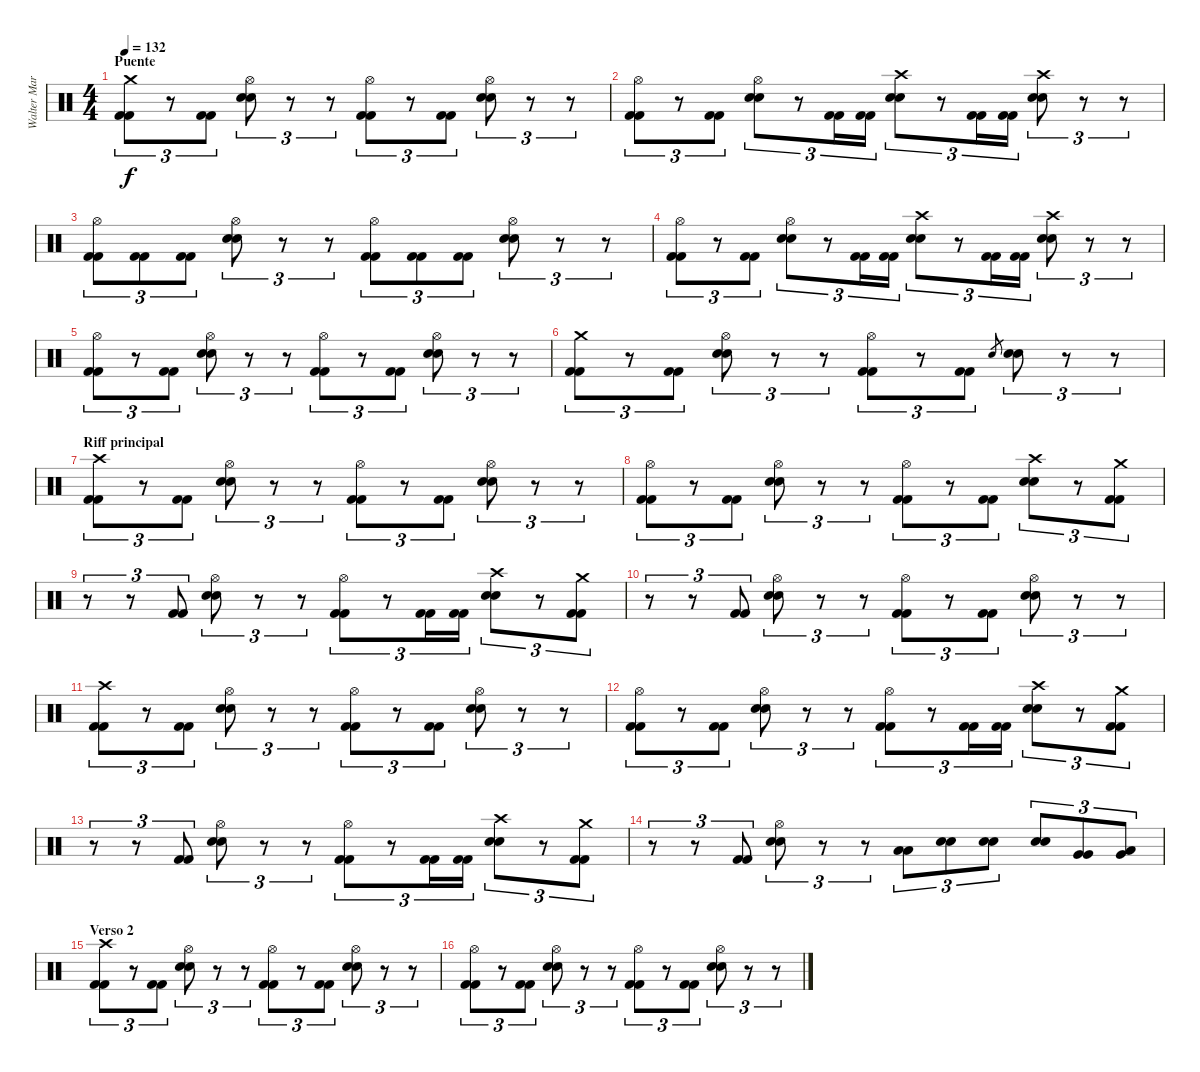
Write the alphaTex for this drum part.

\track ("Walter Martinez (bateria)" "Walter Mar") {instrument percussion}
\staff {score}
\articulation defaults
\ts (4 4)
\section ("" "Puente")
\tempo 132
\clef neutral
\ks c
("Crash medium (hit)" "Kick (hit) 2" "Kick (hit) 2").8{tu (3 2) dy f} r.8{tu (3 2)} ("Kick (hit) 2" "Kick (hit) 2").8{tu (3 2)} ("Hi-Hat (open)" "Snare (hit) 2" "Snare (hit) 2").8{tu (3 2)} r.8{tu (3 2)} r.8{tu (3 2)} ("Hi-Hat (open)" "Kick (hit) 2" "Kick (hit) 2").8{tu (3 2)} r.8{tu (3 2)} ("Kick (hit) 2" "Kick (hit) 2").8{tu (3 2)} ("Hi-Hat (open)" "Snare (hit) 2" "Snare (hit) 2").8{tu (3 2)} r.8{tu (3 2)} r.8{tu (3 2)} |
("Hi-Hat (open)" "Kick (hit) 2" "Kick (hit) 2").8{tu (3 2)} r.8{tu (3 2)} ("Kick (hit) 2" "Kick (hit) 2").8{tu (3 2)} ("Hi-Hat (open)" "Snare (hit) 2" "Snare (hit) 2").8{tu (3 2)} r.8{tu (3 2)} ("Kick (hit) 2" "Kick (hit) 2").16{tu (3 2)} ("Kick (hit) 2" "Kick (hit) 2").16{tu (3 2)} ("Crash high (hit)" "Snare (hit) 2" "Snare (hit) 2").8{tu (3 2)} r.8{tu (3 2)} ("Kick (hit) 2" "Kick (hit) 2").16{tu (3 2)} ("Kick (hit) 2" "Kick (hit) 2").16{tu (3 2)} ("Crash high (hit)" "Snare (hit) 2" "Snare (hit) 2").8{tu (3 2)} r.8{tu (3 2)} r.8{tu (3 2)} |
("Hi-Hat (open)" "Kick (hit) 2" "Kick (hit) 2").8{tu (3 2)} ("Kick (hit) 2" "Kick (hit) 2").8{tu (3 2)} ("Kick (hit) 2" "Kick (hit) 2").8{tu (3 2)} ("Hi-Hat (open)" "Snare (hit) 2" "Snare (hit) 2").8{tu (3 2)} r.8{tu (3 2)} r.8{tu (3 2)} ("Hi-Hat (open)" "Kick (hit) 2" "Kick (hit) 2").8{tu (3 2)} ("Kick (hit) 2" "Kick (hit) 2").8{tu (3 2)} ("Kick (hit) 2" "Kick (hit) 2").8{tu (3 2)} ("Hi-Hat (open)" "Snare (hit) 2" "Snare (hit) 2").8{tu (3 2)} r.8{tu (3 2)} r.8{tu (3 2)} |
("Hi-Hat (open)" "Kick (hit) 2" "Kick (hit) 2").8{tu (3 2)} r.8{tu (3 2)} ("Kick (hit) 2" "Kick (hit) 2").8{tu (3 2)} ("Hi-Hat (open)" "Snare (hit) 2" "Snare (hit) 2").8{tu (3 2)} r.8{tu (3 2)} ("Kick (hit) 2" "Kick (hit) 2").16{tu (3 2)} ("Kick (hit) 2" "Kick (hit) 2").16{tu (3 2)} ("Crash high (hit)" "Snare (hit) 2" "Snare (hit) 2").8{tu (3 2)} r.8{tu (3 2)} ("Kick (hit) 2" "Kick (hit) 2").16{tu (3 2)} ("Kick (hit) 2" "Kick (hit) 2").16{tu (3 2)} ("Crash high (hit)" "Snare (hit) 2" "Snare (hit) 2").8{tu (3 2)} r.8{tu (3 2)} r.8{tu (3 2)} |
("Hi-Hat (open)" "Kick (hit) 2" "Kick (hit) 2").8{tu (3 2)} r.8{tu (3 2)} ("Kick (hit) 2" "Kick (hit) 2").8{tu (3 2)} ("Hi-Hat (open)" "Snare (hit) 2" "Snare (hit) 2").8{tu (3 2)} r.8{tu (3 2)} r.8{tu (3 2)} ("Hi-Hat (open)" "Kick (hit) 2" "Kick (hit) 2").8{tu (3 2)} r.8{tu (3 2)} ("Kick (hit) 2" "Kick (hit) 2").8{tu (3 2)} ("Hi-Hat (open)" "Snare (hit) 2" "Snare (hit) 2").8{tu (3 2)} r.8{tu (3 2)} r.8{tu (3 2)} |
("Crash medium (hit)" "Kick (hit) 2" "Kick (hit) 2").8{tu (3 2)} r.8{tu (3 2)} ("Kick (hit) 2" "Kick (hit) 2").8{tu (3 2)} ("Hi-Hat (open)" "Snare (hit) 2" "Snare (hit) 2").8{tu (3 2)} r.8{tu (3 2)} r.8{tu (3 2)} ("Hi-Hat (open)" "Kick (hit) 2" "Kick (hit) 2").8{tu (3 2)} r.8{tu (3 2)} ("Kick (hit) 2" "Kick (hit) 2").8{tu (3 2)} "Snare (hit) 2".8{gr} ("Snare (hit) 2" "Snare (hit) 2").8{tu (3 2)} r.8{tu (3 2)} r.8{tu (3 2)} |
\section ("" "Riff principal")
("Crash high (hit)" "Kick (hit) 2" "Kick (hit) 2").8{tu (3 2)} r.8{tu (3 2)} ("Kick (hit) 2" "Kick (hit) 2").8{tu (3 2)} ("Hi-Hat (open)" "Snare (hit) 2" "Snare (hit) 2").8{tu (3 2)} r.8{tu (3 2)} r.8{tu (3 2)} ("Hi-Hat (open)" "Kick (hit) 2" "Kick (hit) 2").8{tu (3 2)} r.8{tu (3 2)} ("Kick (hit) 2" "Kick (hit) 2").8{tu (3 2)} ("Hi-Hat (open)" "Snare (hit) 2" "Snare (hit) 2").8{tu (3 2)} r.8{tu (3 2)} r.8{tu (3 2)} |
("Hi-Hat (open)" "Kick (hit) 2" "Kick (hit) 2").8{tu (3 2)} r.8{tu (3 2)} ("Kick (hit) 2" "Kick (hit) 2").8{tu (3 2)} ("Hi-Hat (open)" "Snare (hit) 2" "Snare (hit) 2").8{tu (3 2)} r.8{tu (3 2)} r.8{tu (3 2)} ("Hi-Hat (open)" "Kick (hit) 2" "Kick (hit) 2").8{tu (3 2)} r.8{tu (3 2)} ("Kick (hit) 2" "Kick (hit) 2").8{tu (3 2)} ("Crash high (hit)" "Snare (hit) 2" "Snare (hit) 2").8{tu (3 2)} r.8{tu (3 2)} ("Crash medium (hit)" "Kick (hit) 2" "Kick (hit) 2").8{tu (3 2)} |
r.8{tu (3 2)} r.8{tu (3 2)} ("Kick (hit) 2" "Kick (hit) 2").8{tu (3 2)} ("Hi-Hat (open)" "Snare (hit) 2" "Snare (hit) 2").8{tu (3 2)} r.8{tu (3 2)} r.8{tu (3 2)} ("Hi-Hat (open)" "Kick (hit) 2" "Kick (hit) 2").8{tu (3 2)} r.8{tu (3 2)} ("Kick (hit) 2" "Kick (hit) 2").16{tu (3 2)} ("Kick (hit) 2" "Kick (hit) 2").16{tu (3 2)} ("Crash high (hit)" "Snare (hit) 2" "Snare (hit) 2").8{tu (3 2)} r.8{tu (3 2)} ("Crash medium (hit)" "Kick (hit) 2" "Kick (hit) 2").8{tu (3 2)} |
r.8{tu (3 2)} r.8{tu (3 2)} ("Kick (hit) 2" "Kick (hit) 2").8{tu (3 2)} ("Hi-Hat (open)" "Snare (hit) 2" "Snare (hit) 2").8{tu (3 2)} r.8{tu (3 2)} r.8{tu (3 2)} ("Hi-Hat (open)" "Kick (hit) 2" "Kick (hit) 2").8{tu (3 2)} r.8{tu (3 2)} ("Kick (hit) 2" "Kick (hit) 2").8{tu (3 2)} ("Hi-Hat (open)" "Snare (hit) 2" "Snare (hit) 2").8{tu (3 2)} r.8{tu (3 2)} r.8{tu (3 2)} |
("Crash high (hit)" "Kick (hit) 2" "Kick (hit) 2").8{tu (3 2)} r.8{tu (3 2)} ("Kick (hit) 2" "Kick (hit) 2").8{tu (3 2)} ("Hi-Hat (open)" "Snare (hit) 2" "Snare (hit) 2").8{tu (3 2)} r.8{tu (3 2)} r.8{tu (3 2)} ("Hi-Hat (open)" "Kick (hit) 2" "Kick (hit) 2").8{tu (3 2)} r.8{tu (3 2)} ("Kick (hit) 2" "Kick (hit) 2").8{tu (3 2)} ("Hi-Hat (open)" "Snare (hit) 2" "Snare (hit) 2").8{tu (3 2)} r.8{tu (3 2)} r.8{tu (3 2)} |
("Hi-Hat (open)" "Kick (hit) 2" "Kick (hit) 2").8{tu (3 2)} r.8{tu (3 2)} ("Kick (hit) 2" "Kick (hit) 2").8{tu (3 2)} ("Hi-Hat (open)" "Snare (hit) 2" "Snare (hit) 2").8{tu (3 2)} r.8{tu (3 2)} r.8{tu (3 2)} ("Hi-Hat (open)" "Kick (hit) 2" "Kick (hit) 2").8{tu (3 2)} r.8{tu (3 2)} ("Kick (hit) 2" "Kick (hit) 2").16{tu (3 2)} ("Kick (hit) 2" "Kick (hit) 2").16{tu (3 2)} ("Crash high (hit)" "Snare (hit) 2" "Snare (hit) 2").8{tu (3 2)} r.8{tu (3 2)} ("Crash medium (hit)" "Kick (hit) 2" "Kick (hit) 2").8{tu (3 2)} |
r.8{tu (3 2)} r.8{tu (3 2)} ("Kick (hit) 2" "Kick (hit) 2").8{tu (3 2)} ("Hi-Hat (open)" "Snare (hit) 2" "Snare (hit) 2").8{tu (3 2)} r.8{tu (3 2)} r.8{tu (3 2)} ("Hi-Hat (open)" "Kick (hit) 2" "Kick (hit) 2").8{tu (3 2)} r.8{tu (3 2)} ("Kick (hit) 2" "Kick (hit) 2").16{tu (3 2)} ("Kick (hit) 2" "Kick (hit) 2").16{tu (3 2)} ("Crash high (hit)" "Snare (hit) 2" "Snare (hit) 2").8{tu (3 2)} r.8{tu (3 2)} ("Crash medium (hit)" "Kick (hit) 2" "Kick (hit) 2").8{tu (3 2)} |
r.8{tu (3 2)} r.8{tu (3 2)} ("Kick (hit) 2" "Kick (hit) 2").8{tu (3 2)} ("Hi-Hat (open)" "Snare (hit) 2" "Snare (hit) 2").8{tu (3 2)} r.8{tu (3 2)} r.8{tu (3 2)} ("Low Tom (hit)" "Low Tom (hit)").8{tu (3 2)} ("Snare (hit) 2" "Snare (hit) 2").8{tu (3 2)} ("Snare (hit) 2" "Snare (hit) 2").8{tu (3 2)} ("Snare (hit) 2" "Snare (hit) 2").8{tu (3 2)} ("Very Low Tom (hit)" "Very Low Tom (hit)").8{tu (3 2)} ("Very Low Tom (hit)" "Low Floor Tom (hit)").8{tu (3 2)} |
\section ("" "Verso 2")
("Crash high (hit)" "Kick (hit) 2" "Kick (hit) 2").8{tu (3 2)} r.8{tu (3 2)} ("Kick (hit) 2" "Kick (hit) 2").8{tu (3 2)} ("Hi-Hat (open)" "Snare (hit) 2" "Snare (hit) 2").8{tu (3 2)} r.8{tu (3 2)} r.8{tu (3 2)} ("Hi-Hat (open)" "Kick (hit) 2" "Kick (hit) 2").8{tu (3 2)} r.8{tu (3 2)} ("Kick (hit) 2" "Kick (hit) 2").8{tu (3 2)} ("Hi-Hat (open)" "Snare (hit) 2" "Snare (hit) 2").8{tu (3 2)} r.8{tu (3 2)} r.8{tu (3 2)} |
("Hi-Hat (open)" "Kick (hit) 2" "Kick (hit) 2").8{tu (3 2)} r.8{tu (3 2)} ("Kick (hit) 2" "Kick (hit) 2").8{tu (3 2)} ("Hi-Hat (open)" "Snare (hit) 2" "Snare (hit) 2").8{tu (3 2)} r.8{tu (3 2)} r.8{tu (3 2)} ("Hi-Hat (open)" "Kick (hit) 2" "Kick (hit) 2").8{tu (3 2)} r.8{tu (3 2)} ("Kick (hit) 2" "Kick (hit) 2").8{tu (3 2)} ("Hi-Hat (open)" "Snare (hit) 2" "Snare (hit) 2").8{tu (3 2)} r.8{tu (3 2)} r.8{tu (3 2)}
